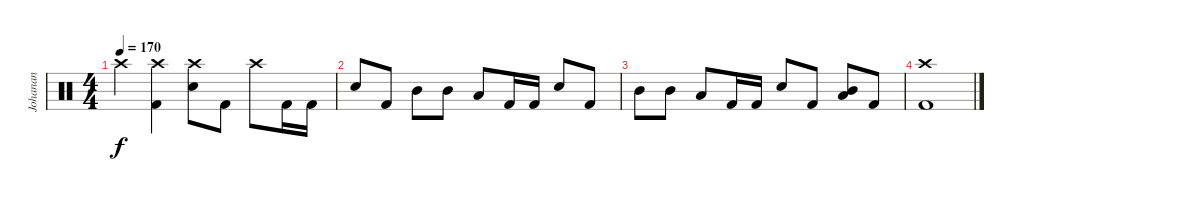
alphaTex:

\track ("Johanan" "Johanan") {instrument percussion}
\staff {score}
\articulation defaults
\ts (4 4)
\tempo 170
\clef neutral
\ks c "Crash high (hit)".4{dy f}
("Crash high (hit)" "Kick (hit) 2").4 ("Crash high (hit)" "Electric Snare (hit)").8 "Kick (hit) 2".8 "Crash high (hit)".8 "Kick (hit) 2".16 "Kick (hit) 2".16 |
"Electric Snare (hit)".8 "Kick (hit) 2".8 "Mid Tom (hit)".8 "Mid Tom (hit)".8 "Low Tom (hit)".8 "Kick (hit) 2".16 "Kick (hit) 2".16 "Electric Snare (hit)".8 "Kick (hit) 2".8 |
"Mid Tom (hit)".8 "Mid Tom (hit)".8 "Low Tom (hit)".8 "Kick (hit) 2".16 "Kick (hit) 2".16 "Electric Snare (hit)".8 "Kick (hit) 2".8 ("Mid Tom (hit)" "Low Tom (hit)").8 "Kick (hit) 2".8 |
("Crash high (hit)" "Kick (hit) 2").1
